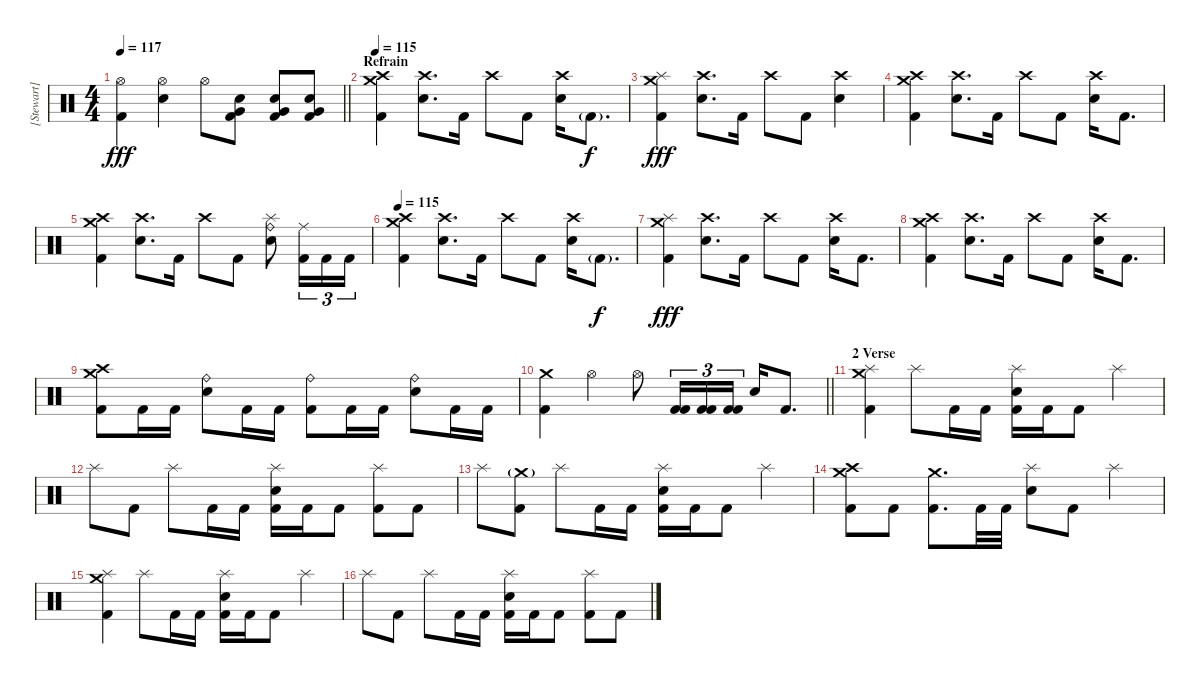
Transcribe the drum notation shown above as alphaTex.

\track ("[Stewart] Drums " "[Stewart] ") {instrument percussion}
\staff {score}
\articulation defaults
\ts (4 4)
\tempo 117
\clef neutral
\barLineRight lightlight
\ks c
("Hi-Hat (open)" "Kick (hit) 2").4{dy fff} ("Hi-Hat (open)" "Electric Snare (hit)").4 "Hi-Hat (open)".8 ("Very Low Tom (hit)" "Electric Snare (hit)" "Kick (hit) 2").8 ("Very Low Tom (hit)" "Electric Snare (hit)" "Kick (hit) 2").8 ("Very Low Tom (hit)" "Electric Snare (hit)" "Kick (hit) 2").8 |
\section ("" "Refrain ")
\tempo 115
("Crash medium (hit)" "Crash high (hit)" "Kick (hit) 2").4 ("Crash high (hit)" "Electric Snare (hit)").8{d} "Kick (hit) 2".16 "Crash high (hit)".8 "Kick (hit) 2".8 ("Crash high (hit)" "Electric Snare (hit)").16 "Kick (hit) 2"{g}.8{d dy f} |
("Crash medium (hit)" "Splash (hit)" "Kick (hit) 2").4{dy fff} ("Crash high (hit)" "Electric Snare (hit)").8{d} "Kick (hit) 2".16 "Crash high (hit)".8 "Kick (hit) 2".8 ("Crash high (hit)" "Electric Snare (hit)").4 |
("Crash medium (hit)" "Crash high (hit)" "Kick (hit) 2").4 ("Crash high (hit)" "Electric Snare (hit)").8{d} "Kick (hit) 2".16 "Crash high (hit)".8 "Kick (hit) 2".8 ("Crash high (hit)" "Electric Snare (hit)").16 "Kick (hit) 2".8{d} |
("Crash medium (hit)" "Crash high (hit)" "Kick (hit) 2").4 ("Crash high (hit)" "Electric Snare (hit)").8{d} "Kick (hit) 2".16 "Crash high (hit)".8 "Kick (hit) 2".8 ("Ride (bell)" "Splash (hit)" "Electric Snare (hit)").8 ("Ride (middle)" "Kick (hit) 2").16{tu (3 2)} "Kick (hit) 2".16{tu (3 2)} "Kick (hit) 2".16{tu (3 2)} |
\tempo 115
("Crash medium (hit)" "Crash high (hit)" "Kick (hit) 2").4 ("Crash high (hit)" "Electric Snare (hit)").8{d} "Kick (hit) 2".16 "Crash high (hit)".8 "Kick (hit) 2".8 ("Crash high (hit)" "Electric Snare (hit)").16 "Kick (hit) 2"{g}.8{d dy f} |
("Crash medium (hit)" "Splash (hit)" "Kick (hit) 2").4{dy fff} ("Crash high (hit)" "Electric Snare (hit)").8{d} "Kick (hit) 2".16 "Crash high (hit)".8 "Kick (hit) 2".8 ("Crash high (hit)" "Electric Snare (hit)").16 "Kick (hit) 2".8{d} |
("Crash medium (hit)" "Crash high (hit)" "Kick (hit) 2").4 ("Crash high (hit)" "Electric Snare (hit)").8{d} "Kick (hit) 2".16 "Crash high (hit)".8 "Kick (hit) 2".8 ("Crash high (hit)" "Electric Snare (hit)").16 "Kick (hit) 2".8{d} |
("Crash medium (hit)" "Crash high (hit)" "Kick (hit) 2").8 "Kick (hit) 2".16 "Kick (hit) 2".16 ("Ride (bell)" "Electric Snare (hit)").8 "Kick (hit) 2".16 "Kick (hit) 2".16 ("Ride (bell)" "Kick (hit) 2").8 "Kick (hit) 2".16 "Kick (hit) 2".16 ("Ride (bell)" "Electric Snare (hit)").8 "Kick (hit) 2".16 "Kick (hit) 2".16 |
\barLineRight lightlight
("Crash medium (hit)" "Kick (hit) 2").4 "Hi-Hat (open)".4 "Hi-Hat (open)".8 ("Kick (hit) 2" "Kick (hit) 2").16{tu (3 2)} ("Kick (hit) 2" "Kick (hit) 2").16{tu (3 2)} ("Kick (hit) 2" "Kick (hit) 2").16{tu (3 2)} "Electric Snare (hit)".16 "Kick (hit) 2".8{d} |
\section ("" "2 Verse")
("Splash (hit)" "Crash medium (hit)" "Kick (hit) 2").4 "Splash (hit)".8 "Kick (hit) 2".16 "Kick (hit) 2".16 ("Splash (hit)" "Electric Snare (hit)" "Kick (hit) 2").16 "Kick (hit) 2".16 "Kick (hit) 2".8 "Splash (hit)".4 |
"Splash (hit)".8 "Kick (hit) 2".8 "Splash (hit)".8 "Kick (hit) 2".16 "Kick (hit) 2".16 ("Splash (hit)" "Electric Snare (hit)" "Kick (hit) 2").16 "Kick (hit) 2".16 "Kick (hit) 2".8 ("Splash (hit)" "Kick (hit) 2").8 "Kick (hit) 2".8 |
"Splash (hit)".8 ("Crash medium (hit)"{g} "Kick (hit) 2").8 "Splash (hit)".8 "Kick (hit) 2".16 "Kick (hit) 2".16 ("Splash (hit)" "Electric Snare (hit)" "Kick (hit) 2").16 "Kick (hit) 2".16 "Kick (hit) 2".8 "Splash (hit)".4 |
("Crash medium (hit)" "Crash high (hit)" "Kick (hit) 2").8 "Kick (hit) 2".8 ("Crash medium (hit)" "Kick (hit) 2").8{d} "Kick (hit) 2".32 "Kick (hit) 2".32 ("Splash (hit)" "Electric Snare (hit)").8 "Kick (hit) 2".8 "Splash (hit)".4 |
("Splash (hit)" "Crash medium (hit)" "Kick (hit) 2").4 "Splash (hit)".8 "Kick (hit) 2".16 "Kick (hit) 2".16 ("Splash (hit)" "Electric Snare (hit)" "Kick (hit) 2").16 "Kick (hit) 2".16 "Kick (hit) 2".8 "Splash (hit)".4 |
"Splash (hit)".8 "Kick (hit) 2".8 "Splash (hit)".8 "Kick (hit) 2".16 "Kick (hit) 2".16 ("Splash (hit)" "Electric Snare (hit)" "Kick (hit) 2").16 "Kick (hit) 2".16 "Kick (hit) 2".8 ("Splash (hit)" "Kick (hit) 2").8 "Kick (hit) 2".8
